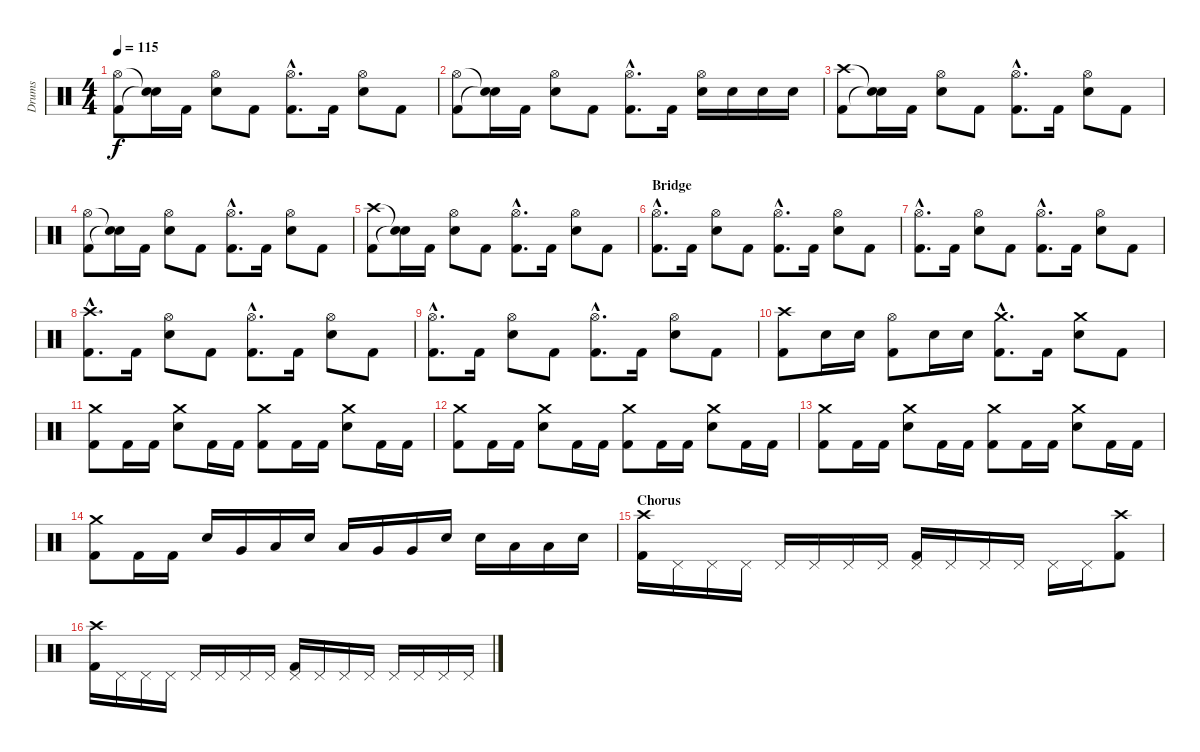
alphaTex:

\track ("Drums" "Drums") {instrument percussion}
\staff {score}
\articulation defaults
\ts (4 4)
\tempo 115
\clef neutral
\ks c
("Hi-Hat (open)" "Kick (hit) 2").8{dy f} ("Snare (hit)"{t} "Snare (hit)"{t}).16 "Kick (hit) 2".16 ("Hi-Hat (open)" "Snare (hit) 2").8 "Kick (hit) 2".8 ("Hi-Hat (open)"{hac} "Kick (hit) 2"{hac}).8{d} "Kick (hit) 2".16 ("Hi-Hat (open)" "Snare (hit) 2").8 "Kick (hit) 2".8 |
("Hi-Hat (open)" "Kick (hit) 2").8 ("Snare (hit)"{t} "Snare (hit)"{t}).16 "Kick (hit) 2".16 ("Hi-Hat (open)" "Snare (hit) 2").8 "Kick (hit) 2".8 ("Hi-Hat (open)"{hac} "Kick (hit) 2"{hac}).8{d} "Kick (hit) 2".16 ("Hi-Hat (open)" "Snare (hit) 2").16 "Snare (hit) 2".16 "Snare (hit) 2".16 "Snare (hit) 2".16 |
("Crash high (hit)" "Kick (hit) 2").8 ("Snare (hit)"{t} "Snare (hit)"{t}).16 "Kick (hit) 2".16 ("Hi-Hat (open)" "Snare (hit) 2").8 "Kick (hit) 2".8 ("Hi-Hat (open)"{hac} "Kick (hit) 2"{hac}).8{d} "Kick (hit) 2".16 ("Hi-Hat (open)" "Snare (hit) 2").8 "Kick (hit) 2".8 |
("Hi-Hat (open)" "Kick (hit) 2").8 ("Snare (hit)"{t} "Snare (hit)"{t}).16 "Kick (hit) 2".16 ("Hi-Hat (open)" "Snare (hit) 2").8 "Kick (hit) 2".8 ("Hi-Hat (open)"{hac} "Kick (hit) 2"{hac}).8{d} "Kick (hit) 2".16 ("Hi-Hat (open)" "Snare (hit) 2").8 "Kick (hit) 2".8 |
("Crash high (hit)" "Kick (hit) 2").8 ("Snare (hit)"{t} "Snare (hit)"{t}).16 "Kick (hit) 2".16 ("Hi-Hat (open)" "Snare (hit) 2").8 "Kick (hit) 2".8 ("Hi-Hat (open)"{hac} "Kick (hit) 2"{hac}).8{d} "Kick (hit) 2".16 ("Hi-Hat (open)" "Snare (hit) 2").8 "Kick (hit) 2".8 |
\section ("" "Bridge")
("Hi-Hat (open)"{hac} "Kick (hit) 2"{hac}).8{d} "Kick (hit) 2".16 ("Hi-Hat (open)" "Snare (hit) 2").8 "Kick (hit) 2".8 ("Hi-Hat (open)"{hac} "Kick (hit) 2"{hac}).8{d} "Kick (hit) 2".16 ("Hi-Hat (open)" "Snare (hit) 2").8 "Kick (hit) 2".8 |
("Hi-Hat (open)"{hac} "Kick (hit) 2"{hac}).8{d} "Kick (hit) 2".16 ("Hi-Hat (open)" "Snare (hit) 2").8 "Kick (hit) 2".8 ("Hi-Hat (open)"{hac} "Kick (hit) 2"{hac}).8{d} "Kick (hit) 2".16 ("Hi-Hat (open)" "Snare (hit) 2").8 "Kick (hit) 2".8 |
("Crash high (hit)"{hac} "Kick (hit) 2"{hac}).8{d} "Kick (hit) 2".16 ("Hi-Hat (open)" "Snare (hit) 2").8 "Kick (hit) 2".8 ("Hi-Hat (open)"{hac} "Kick (hit) 2"{hac}).8{d} "Kick (hit) 2".16 ("Hi-Hat (open)" "Snare (hit) 2").8 "Kick (hit) 2".8 |
("Hi-Hat (open)"{hac} "Kick (hit) 2"{hac}).8{d} "Kick (hit) 2".16 ("Hi-Hat (open)" "Snare (hit) 2").8 "Kick (hit) 2".8 ("Hi-Hat (open)"{hac} "Kick (hit) 2"{hac}).8{d} "Kick (hit) 2".16 ("Hi-Hat (open)" "Snare (hit) 2").8 "Kick (hit) 2".8 |
("Crash high (hit)" "Kick (hit) 2").8 "Snare (hit) 2".16 "Snare (hit) 2".16 ("Hi-Hat (open)" "Kick (hit) 2").8 "Snare (hit) 2".16 "Snare (hit) 2".16 ("Crash medium (hit)"{hac} "Kick (hit) 2"{hac}).8{d} "Kick (hit) 2".16 ("Crash medium (hit)" "Snare (hit) 2").8 "Kick (hit) 2".8 |
("Crash medium (hit)" "Kick (hit) 2").8 "Kick (hit) 2".16 "Kick (hit) 2".16 ("Crash medium (hit)" "Snare (hit) 2").8 "Kick (hit) 2".16 "Kick (hit) 2".16 ("Crash medium (hit)" "Kick (hit) 2").8 "Kick (hit) 2".16 "Kick (hit) 2".16 ("Crash medium (hit)" "Snare (hit) 2").8 "Kick (hit) 2".16 "Kick (hit) 2".16 |
("Crash medium (hit)" "Kick (hit) 2").8 "Kick (hit) 2".16 "Kick (hit) 2".16 ("Crash medium (hit)" "Snare (hit) 2").8 "Kick (hit) 2".16 "Kick (hit) 2".16 ("Crash medium (hit)" "Kick (hit) 2").8 "Kick (hit) 2".16 "Kick (hit) 2".16 ("Crash medium (hit)" "Snare (hit) 2").8 "Kick (hit) 2".16 "Kick (hit) 2".16 |
("Crash medium (hit)" "Kick (hit) 2").8 "Kick (hit) 2".16 "Kick (hit) 2".16 ("Crash medium (hit)" "Snare (hit) 2").8 "Kick (hit) 2".16 "Kick (hit) 2".16 ("Crash medium (hit)" "Kick (hit) 2").8 "Kick (hit) 2".16 "Kick (hit) 2".16 ("Crash medium (hit)" "Snare (hit) 2").8 "Kick (hit) 2".16 "Kick (hit) 2".16 |
("Crash medium (hit)" "Kick (hit) 2").8 "Kick (hit) 2".16 "Kick (hit) 2".16 "Snare (hit) 2".16 "Very Low Tom (hit)".16 "Low Floor Tom (hit)".16 "Snare (hit) 2".16 "Low Tom (hit)".16 "Very Low Tom (hit)".16 "Very Low Tom (hit)".16 "Snare (hit) 2".16 "Snare (hit) 2".16 "Low Tom (hit)".16 "Low Tom (hit)".16 "Snare (hit) 2".16 |
\section ("" "Chorus")
("Crash high (hit)" "Kick (hit) 2").16 "Pedal Hi-Hat (hit)".16 "Pedal Hi-Hat (hit)".16 "Pedal Hi-Hat (hit)".16 "Pedal Hi-Hat (hit)".16 "Pedal Hi-Hat (hit)".16 "Pedal Hi-Hat (hit)".16 "Pedal Hi-Hat (hit)".16 ("Pedal Hi-Hat (hit)" "Kick (hit) 2").16 "Pedal Hi-Hat (hit)".16 "Pedal Hi-Hat (hit)".16 "Pedal Hi-Hat (hit)".16 "Pedal Hi-Hat (hit)".16 "Pedal Hi-Hat (hit)".16 ("Crash high (hit)" "Kick (hit) 2").8 |
("Crash high (hit)" "Kick (hit) 2").16 "Pedal Hi-Hat (hit)".16 "Pedal Hi-Hat (hit)".16 "Pedal Hi-Hat (hit)".16 "Pedal Hi-Hat (hit)".16 "Pedal Hi-Hat (hit)".16 "Pedal Hi-Hat (hit)".16 "Pedal Hi-Hat (hit)".16 ("Pedal Hi-Hat (hit)" "Kick (hit) 2").16 "Pedal Hi-Hat (hit)".16 "Pedal Hi-Hat (hit)".16 "Pedal Hi-Hat (hit)".16 "Pedal Hi-Hat (hit)".16 "Pedal Hi-Hat (hit)".16 "Pedal Hi-Hat (hit)".16 "Pedal Hi-Hat (hit)".16
